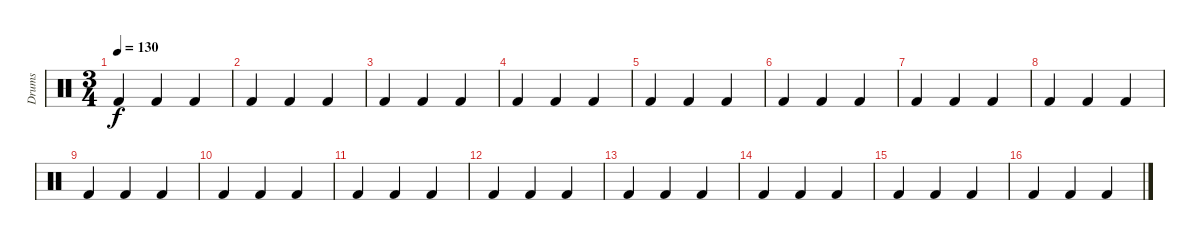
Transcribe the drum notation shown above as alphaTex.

\track ("Drums" "Drums") {instrument percussion}
\staff {score}
\articulation defaults
\ts (3 4)
\tempo 130
\clef neutral
\ks c "Kick (hit) 2".4{dy f} "Kick (hit) 2".4 "Kick (hit) 2".4
|
"Kick (hit) 2".4 "Kick (hit) 2".4 "Kick (hit) 2".4 |
"Kick (hit) 2".4 "Kick (hit) 2".4 "Kick (hit) 2".4 |
"Kick (hit) 2".4 "Kick (hit) 2".4 "Kick (hit) 2".4 |
"Kick (hit) 2".4 "Kick (hit) 2".4 "Kick (hit) 2".4 |
"Kick (hit) 2".4 "Kick (hit) 2".4 "Kick (hit) 2".4 |
"Kick (hit) 2".4 "Kick (hit) 2".4 "Kick (hit) 2".4 |
"Kick (hit) 2".4 "Kick (hit) 2".4 "Kick (hit) 2".4 |
"Kick (hit) 2".4 "Kick (hit) 2".4 "Kick (hit) 2".4 |
"Kick (hit) 2".4 "Kick (hit) 2".4 "Kick (hit) 2".4 |
"Kick (hit) 2".4 "Kick (hit) 2".4 "Kick (hit) 2".4 |
"Kick (hit) 2".4 "Kick (hit) 2".4 "Kick (hit) 2".4 |
"Kick (hit) 2".4 "Kick (hit) 2".4 "Kick (hit) 2".4 |
"Kick (hit) 2".4 "Kick (hit) 2".4 "Kick (hit) 2".4 |
"Kick (hit) 2".4 "Kick (hit) 2".4 "Kick (hit) 2".4 |
"Kick (hit) 2".4 "Kick (hit) 2".4 "Kick (hit) 2".4
